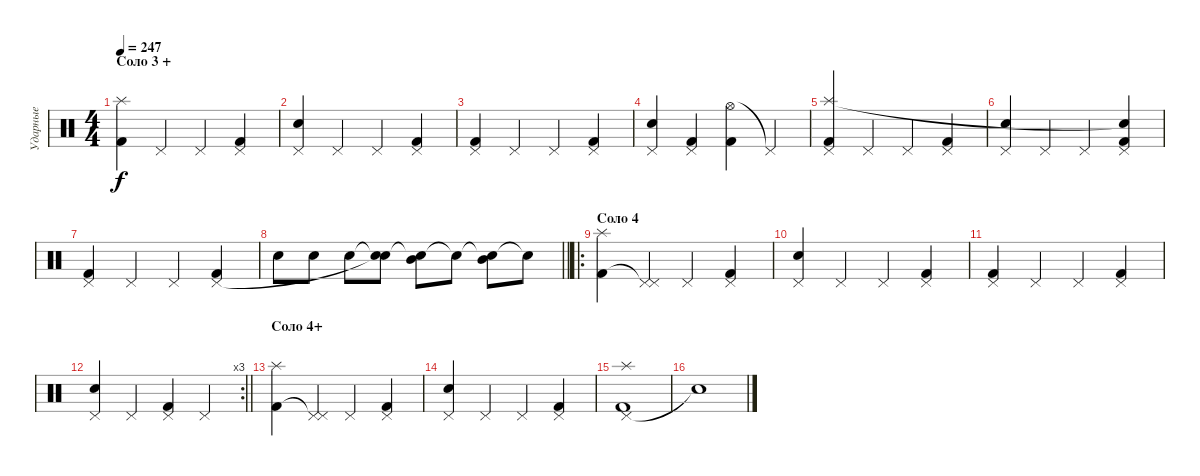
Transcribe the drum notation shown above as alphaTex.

\track ("Ударные" "Ударные") {instrument percussion}
\staff {score}
\articulation defaults
\ts (4 4)
\section ("" "Соло 3 +")
\tempo 247
\clef neutral
\ks c
("Kick (hit) 2" "Splash (hit)").4{dy f} "Pedal Hi-Hat (hit)".4 "Pedal Hi-Hat (hit)".4 ("Pedal Hi-Hat (hit)" "Kick (hit) 2").4 |
("Pedal Hi-Hat (hit)" "Electric Snare (hit)").4 "Pedal Hi-Hat (hit)".4 "Pedal Hi-Hat (hit)".4 ("Pedal Hi-Hat (hit)" "Kick (hit) 2").4 |
("Pedal Hi-Hat (hit)" "Kick (hit) 2").4 "Pedal Hi-Hat (hit)".4 "Pedal Hi-Hat (hit)".4 ("Kick (hit) 2" "Pedal Hi-Hat (hit)").4 |
("Pedal Hi-Hat (hit)" "Electric Snare (hit)").4 ("Pedal Hi-Hat (hit)" "Kick (hit) 2").4 ("Hi-Hat (open)" "Kick (hit) 2").4 "Pedal Hi-Hat (hit)"{t}.4 |
("Kick (hit) 2" "Pedal Hi-Hat (hit)" "Splash (hit)").4 "Pedal Hi-Hat (hit)".4 "Pedal Hi-Hat (hit)".4 ("Pedal Hi-Hat (hit)" "Kick (hit) 2").4 |
("Pedal Hi-Hat (hit)" "Electric Snare (hit)").4 "Pedal Hi-Hat (hit)".4 "Pedal Hi-Hat (hit)".4 ("Kick (hit) 2" "Pedal Hi-Hat (hit)" "Snare (hit)"{t}).4 |
("Kick (hit) 2" "Pedal Hi-Hat (hit)").4 "Pedal Hi-Hat (hit)".4 "Pedal Hi-Hat (hit)".4 ("Kick (hit) 2" "Pedal Hi-Hat (hit)").4 |
\barLineRight lightlight "Electric Snare (hit)".8 "Electric Snare (hit)".8 "Electric Snare (hit)".8
("Snare (hit)"{t} "Snare (hit)"{t}).8 ("Snare (hit)"{t} "Mid Tom (hit)").8 "Snare (hit)"{t}.8 ("Snare (hit)"{t} "Mid Tom (hit)").8 "Snare (hit)"{t}.8 |
\ro
\section ("" "Соло 4")
("Kick (hit) 2" "Splash (hit)").4 ("Pedal Hi-Hat (hit)"{t} "Pedal Hi-Hat (hit)").4 "Pedal Hi-Hat (hit)".4 ("Pedal Hi-Hat (hit)" "Kick (hit) 2").4 |
("Pedal Hi-Hat (hit)" "Electric Snare (hit)").4 "Pedal Hi-Hat (hit)".4 "Pedal Hi-Hat (hit)".4 ("Kick (hit) 2" "Pedal Hi-Hat (hit)").4 |
("Pedal Hi-Hat (hit)" "Kick (hit) 2").4 "Pedal Hi-Hat (hit)".4 "Pedal Hi-Hat (hit)".4 ("Kick (hit) 2" "Pedal Hi-Hat (hit)").4 |
\rc 3
\barLineRight lightlight
("Pedal Hi-Hat (hit)" "Electric Snare (hit)").4 "Pedal Hi-Hat (hit)".4 ("Pedal Hi-Hat (hit)" "Kick (hit) 2").4 "Pedal Hi-Hat (hit)".4 |
\section ("" "Соло 4+")
("Kick (hit) 2" "Splash (hit)").4 ("Pedal Hi-Hat (hit)"{t} "Pedal Hi-Hat (hit)").4 "Pedal Hi-Hat (hit)".4 ("Pedal Hi-Hat (hit)" "Kick (hit) 2").4 |
("Pedal Hi-Hat (hit)" "Electric Snare (hit)").4 "Pedal Hi-Hat (hit)".4 "Pedal Hi-Hat (hit)".4 ("Kick (hit) 2" "Pedal Hi-Hat (hit)").4 |
("Pedal Hi-Hat (hit)" "Kick (hit) 2" "Splash (hit)").1 |
"Snare (hit)"{t}.1
